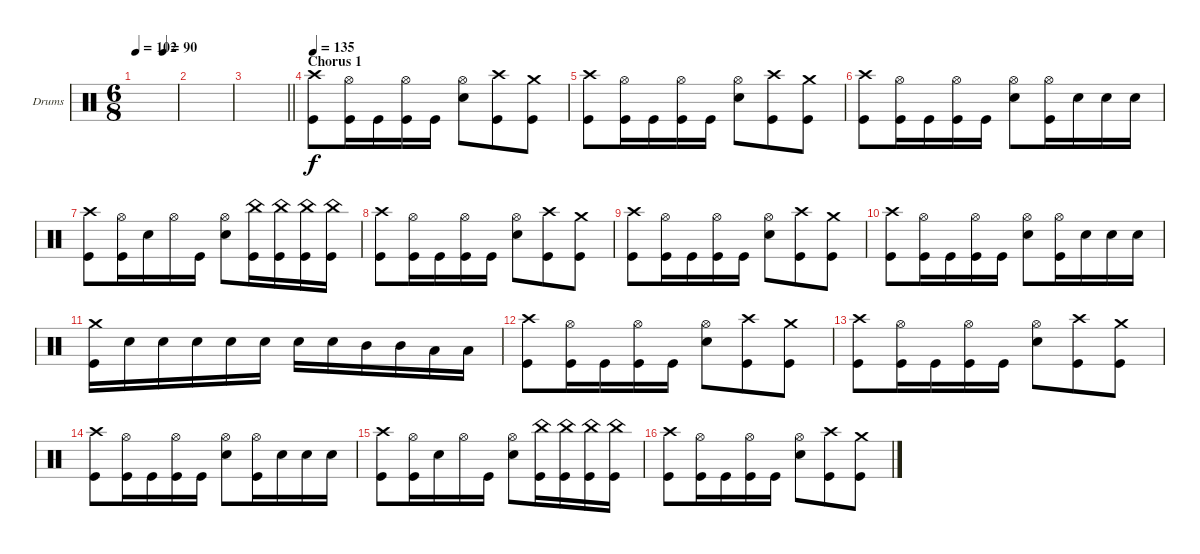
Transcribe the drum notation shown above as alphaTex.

\bracketExtendMode groupsimilarinstruments
\firstSystemTrackNameOrientation horizontal
\otherSystemsTrackNameOrientation horizontal
\track ("drums (Anton Zulganov)" "Drums") {instrument percussion}
\staff {score}
\articulation defaults
\ts (6 8)
\tempo 102
\tempo (90 0.666667)
\clef neutral
\ks aminor
|
|
\barLineRight lightlight
|
\section ("" "Chorus 1")
\tempo 135
("Kick (hit)" "Crash high (hit)").8 ("Kick (hit)" "Hi-Hat (open)").16 "Kick (hit)".16 ("Kick (hit)" "Hi-Hat (open)").16 "Kick (hit)".16 ("Snare (hit) 2" "Hi-Hat (open)").8 ("Kick (hit)" "Crash high (hit)").8 ("Kick (hit)" "Crash medium (hit)").8 |
("Kick (hit)" "Crash high (hit)").8 ("Kick (hit)" "Hi-Hat (open)").16 "Kick (hit)".16 ("Kick (hit)" "Hi-Hat (open)").16 "Kick (hit)".16 ("Snare (hit) 2" "Hi-Hat (open)").8 ("Kick (hit)" "Crash high (hit)").8 ("Kick (hit)" "Crash medium (hit)").8 |
("Kick (hit)" "Crash high (hit)").8 ("Kick (hit)" "Hi-Hat (open)").16 "Kick (hit)".16 ("Kick (hit)" "Hi-Hat (open)").16 "Kick (hit)".16 ("Snare (hit) 2" "Hi-Hat (open)").8 ("Kick (hit)" "Hi-Hat (open)").16 "Snare (hit) 2".16 "Snare (hit) 2".16 "Snare (hit) 2".16 |
("Kick (hit)" "Crash high (hit)").8 ("Kick (hit)" "Hi-Hat (open)").16 "Snare (hit) 2".16 "Hi-Hat (open)".16 "Kick (hit)".16 ("Snare (hit) 2" "Hi-Hat (open)").8 ("Kick (hit)" "China (hit)").16 ("Kick (hit)" "China (hit)").16 ("Kick (hit)" "China (hit)").16 ("Kick (hit)" "China (hit)").16 |
\beaming (8 3 3)
("Kick (hit)" "Crash high (hit)").8 ("Kick (hit)" "Hi-Hat (open)").16 "Kick (hit)".16 ("Kick (hit)" "Hi-Hat (open)").16 "Kick (hit)".16 ("Snare (hit) 2" "Hi-Hat (open)").8 ("Kick (hit)" "Crash high (hit)").8 ("Kick (hit)" "Crash medium (hit)").8 |
("Kick (hit)" "Crash high (hit)").8 ("Kick (hit)" "Hi-Hat (open)").16 "Kick (hit)".16 ("Kick (hit)" "Hi-Hat (open)").16 "Kick (hit)".16 ("Snare (hit) 2" "Hi-Hat (open)").8 ("Kick (hit)" "Crash high (hit)").8 ("Kick (hit)" "Crash medium (hit)").8 |
("Kick (hit)" "Crash high (hit)").8 ("Kick (hit)" "Hi-Hat (open)").16 "Kick (hit)".16 ("Kick (hit)" "Hi-Hat (open)").16 "Kick (hit)".16 ("Snare (hit) 2" "Hi-Hat (open)").8 ("Kick (hit)" "Hi-Hat (open)").16 "Snare (hit) 2".16 "Snare (hit) 2".16 "Snare (hit) 2".16 |
("Kick (hit)" "Crash medium (hit)").16 "Snare (hit) 2".16 "Snare (hit) 2".16 "Snare (hit) 2".16 "Snare (hit) 2".16 "Snare (hit) 2".16 "Snare (hit) 2".16 "Snare (hit) 2".16 "Mid Tom (hit)".16 "Mid Tom (hit)".16 "Low Tom (hit)".16 "Low Tom (hit)".16 |
("Kick (hit)" "Crash high (hit)").8 ("Kick (hit)" "Hi-Hat (open)").16 "Kick (hit)".16 ("Kick (hit)" "Hi-Hat (open)").16 "Kick (hit)".16 ("Snare (hit) 2" "Hi-Hat (open)").8 ("Kick (hit)" "Crash high (hit)").8 ("Kick (hit)" "Crash medium (hit)").8 |
("Kick (hit)" "Crash high (hit)").8 ("Kick (hit)" "Hi-Hat (open)").16 "Kick (hit)".16 ("Kick (hit)" "Hi-Hat (open)").16 "Kick (hit)".16 ("Snare (hit) 2" "Hi-Hat (open)").8 ("Kick (hit)" "Crash high (hit)").8 ("Kick (hit)" "Crash medium (hit)").8 |
("Kick (hit)" "Crash high (hit)").8 ("Kick (hit)" "Hi-Hat (open)").16 "Kick (hit)".16 ("Kick (hit)" "Hi-Hat (open)").16 "Kick (hit)".16 ("Snare (hit) 2" "Hi-Hat (open)").8 ("Kick (hit)" "Hi-Hat (open)").16 "Snare (hit) 2".16 "Snare (hit) 2".16 "Snare (hit) 2".16 |
("Kick (hit)" "Crash high (hit)").8 ("Kick (hit)" "Hi-Hat (open)").16 "Snare (hit) 2".16 "Hi-Hat (open)".16 "Kick (hit)".16 ("Snare (hit) 2" "Hi-Hat (open)").8 ("Kick (hit)" "China (hit)").16 ("Kick (hit)" "China (hit)").16 ("Kick (hit)" "China (hit)").16 ("Kick (hit)" "China (hit)").16 |
("Kick (hit)" "Crash high (hit)").8 ("Kick (hit)" "Hi-Hat (open)").16 "Kick (hit)".16 ("Kick (hit)" "Hi-Hat (open)").16 "Kick (hit)".16 ("Snare (hit) 2" "Hi-Hat (open)").8 ("Kick (hit)" "Crash high (hit)").8 ("Kick (hit)" "Crash medium (hit)").8
